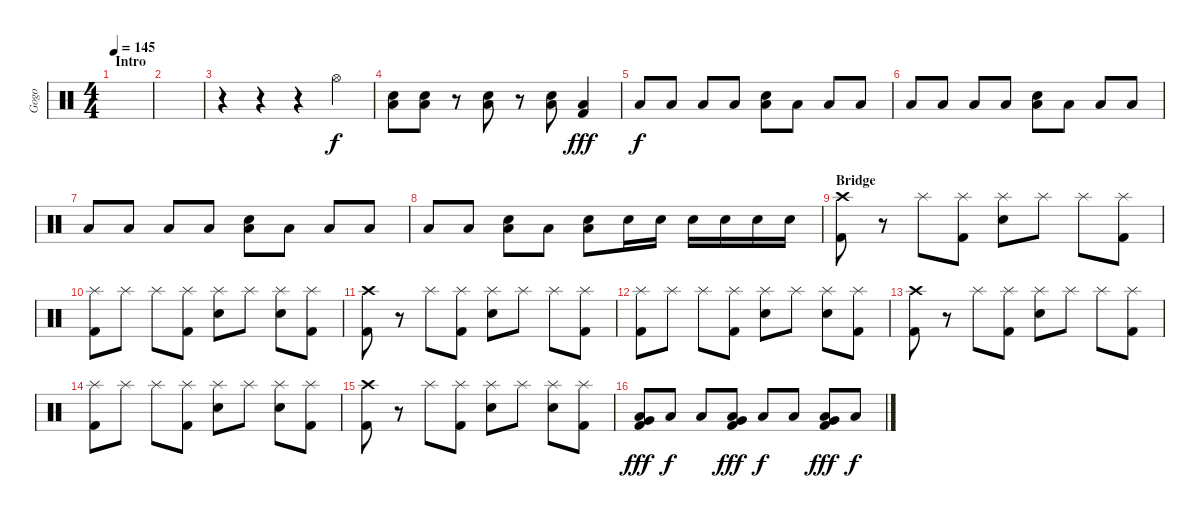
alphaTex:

\track ("Gogo" "Gogo") {instrument percussion}
\staff {score}
\articulation defaults
\ts (4 4)
\section ("" "Intro")
\tempo 145
\clef neutral
\ks c
|
|
r.4 r.4 r.4 "Hi-Hat (open)".4 |
("Electric Snare (hit)" "Low Floor Tom (hit)").8 ("Electric Snare (hit)" "Low Floor Tom (hit)").8 r.8 ("Electric Snare (hit)" "Low Floor Tom (hit)").8 r.8 ("Electric Snare (hit)" "Low Floor Tom (hit)").8 ("Low Floor Tom (hit)" "Kick (hit) 2").4{dy fff} |
"Low Floor Tom (hit)".8{dy f} "Low Floor Tom (hit)".8 "Low Floor Tom (hit)".8 "Low Floor Tom (hit)".8 ("Electric Snare (hit)" "Low Floor Tom (hit)").8 "Low Floor Tom (hit)".8 "Low Floor Tom (hit)".8 "Low Floor Tom (hit)".8 |
"Low Floor Tom (hit)".8 "Low Floor Tom (hit)".8 "Low Floor Tom (hit)".8 "Low Floor Tom (hit)".8 ("Electric Snare (hit)" "Low Floor Tom (hit)").8 "Low Floor Tom (hit)".8 "Low Floor Tom (hit)".8 "Low Floor Tom (hit)".8 |
"Low Floor Tom (hit)".8 "Low Floor Tom (hit)".8 "Low Floor Tom (hit)".8 "Low Floor Tom (hit)".8 ("Electric Snare (hit)" "Low Floor Tom (hit)").8 "Low Floor Tom (hit)".8 "Low Floor Tom (hit)".8 "Low Floor Tom (hit)".8 |
"Low Floor Tom (hit)".8 "Low Floor Tom (hit)".8 ("Electric Snare (hit)" "Low Floor Tom (hit)").8 "Low Floor Tom (hit)".8 ("Electric Snare (hit)" "Low Floor Tom (hit)").8 "Electric Snare (hit)".16 "Electric Snare (hit)".16 "Electric Snare (hit)".16 "Electric Snare (hit)".16 "Electric Snare (hit)".16 "Electric Snare (hit)".16 |
\section ("" "Bridge")
("Crash high (hit)" "Kick (hit) 2").8 r.8 "Splash (hit)".8 ("Splash (hit)" "Kick (hit) 2").8 ("Splash (hit)" "Electric Snare (hit)").8 "Splash (hit)".8 "Splash (hit)".8 ("Splash (hit)" "Kick (hit) 2").8 |
("Splash (hit)" "Kick (hit) 2").8 "Splash (hit)".8 "Splash (hit)".8 ("Splash (hit)" "Kick (hit) 2").8 ("Splash (hit)" "Electric Snare (hit)").8 "Splash (hit)".8 ("Splash (hit)" "Electric Snare (hit)").8 ("Splash (hit)" "Kick (hit) 2").8 |
("Crash high (hit)" "Kick (hit) 2").8 r.8 "Splash (hit)".8 ("Splash (hit)" "Kick (hit) 2").8 ("Splash (hit)" "Electric Snare (hit)").8 "Splash (hit)".8 "Splash (hit)".8 ("Splash (hit)" "Kick (hit) 2").8 |
("Splash (hit)" "Kick (hit) 2").8 "Splash (hit)".8 "Splash (hit)".8 ("Splash (hit)" "Kick (hit) 2").8 ("Splash (hit)" "Electric Snare (hit)").8 "Splash (hit)".8 ("Splash (hit)" "Electric Snare (hit)").8 ("Splash (hit)" "Kick (hit) 2").8 |
("Crash high (hit)" "Kick (hit) 2").8 r.8 "Splash (hit)".8 ("Splash (hit)" "Kick (hit) 2").8 ("Splash (hit)" "Electric Snare (hit)").8 "Splash (hit)".8 "Splash (hit)".8 ("Splash (hit)" "Kick (hit) 2").8 |
("Splash (hit)" "Kick (hit) 2").8 "Splash (hit)".8 "Splash (hit)".8 ("Splash (hit)" "Kick (hit) 2").8 ("Splash (hit)" "Electric Snare (hit)").8 "Splash (hit)".8 ("Splash (hit)" "Electric Snare (hit)").8 ("Splash (hit)" "Kick (hit) 2").8 |
("Crash high (hit)" "Kick (hit) 2").8 r.8 "Splash (hit)".8 ("Splash (hit)" "Kick (hit) 2").8 ("Splash (hit)" "Electric Snare (hit)").8 "Splash (hit)".8 ("Splash (hit)" "Electric Snare (hit)").8 ("Splash (hit)" "Kick (hit) 2").8 |
("Very Low Tom (hit)" "Low Floor Tom (hit)" "Kick (hit) 2").8{dy fff} "Low Floor Tom (hit)".8{dy f} "Low Floor Tom (hit)".8 ("Very Low Tom (hit)" "Low Floor Tom (hit)" "Kick (hit) 2").8{dy fff} "Low Floor Tom (hit)".8{dy f} "Low Floor Tom (hit)".8 ("Very Low Tom (hit)" "Low Floor Tom (hit)" "Kick (hit) 2").8{dy fff} "Low Floor Tom (hit)".8{dy f}
